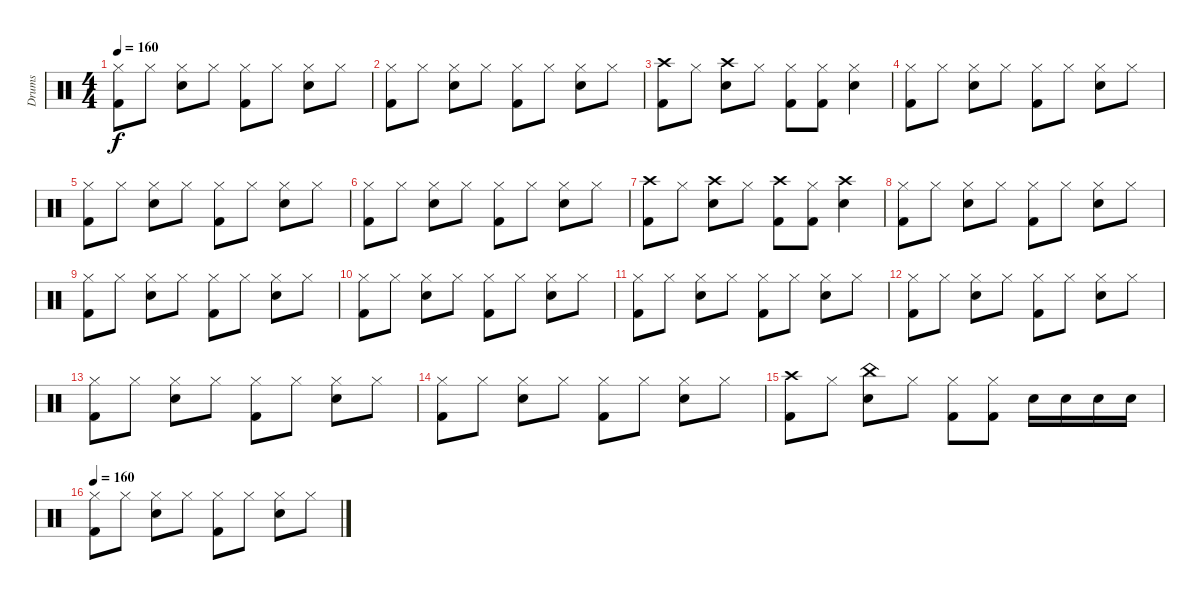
\track ("Drums" "Drums") {instrument percussion}
\staff {score}
\articulation defaults
\ts (4 4)
\tempo 160
\clef neutral
\ks c
("Hi-Hat (closed)" "Kick (hit) 2").8{dy f} "Hi-Hat (closed)".8 ("Hi-Hat (closed)" "Electric Snare (hit)").8 "Hi-Hat (closed)".8 ("Hi-Hat (closed)" "Kick (hit) 2").8 "Hi-Hat (closed)".8 ("Hi-Hat (closed)" "Electric Snare (hit)").8 "Hi-Hat (closed)".8 |
("Hi-Hat (closed)" "Kick (hit) 2").8 "Hi-Hat (closed)".8 ("Hi-Hat (closed)" "Electric Snare (hit)").8 "Hi-Hat (closed)".8 ("Hi-Hat (closed)" "Kick (hit) 2").8 "Hi-Hat (closed)".8 ("Hi-Hat (closed)" "Electric Snare (hit)").8 "Hi-Hat (closed)".8 |
("Crash high (hit)" "Kick (hit) 2").8 "Hi-Hat (closed)".8 ("Crash high (hit)" "Electric Snare (hit)").8 "Hi-Hat (closed)".8 ("Hi-Hat (closed)" "Kick (hit) 2").8 ("Hi-Hat (closed)" "Kick (hit) 2").8 ("Hi-Hat (closed)" "Electric Snare (hit)").4 |
("Hi-Hat (closed)" "Kick (hit) 2").8 "Hi-Hat (closed)".8 ("Hi-Hat (closed)" "Electric Snare (hit)").8 "Hi-Hat (closed)".8 ("Hi-Hat (closed)" "Kick (hit) 2").8 "Hi-Hat (closed)".8 ("Hi-Hat (closed)" "Electric Snare (hit)").8 "Hi-Hat (closed)".8 |
("Hi-Hat (closed)" "Kick (hit) 2").8 "Hi-Hat (closed)".8 ("Hi-Hat (closed)" "Electric Snare (hit)").8 "Hi-Hat (closed)".8 ("Hi-Hat (closed)" "Kick (hit) 2").8 "Hi-Hat (closed)".8 ("Hi-Hat (closed)" "Electric Snare (hit)").8 "Hi-Hat (closed)".8 |
("Hi-Hat (closed)" "Kick (hit) 2").8 "Hi-Hat (closed)".8 ("Hi-Hat (closed)" "Electric Snare (hit)").8 "Hi-Hat (closed)".8 ("Hi-Hat (closed)" "Kick (hit) 2").8 "Hi-Hat (closed)".8 ("Hi-Hat (closed)" "Electric Snare (hit)").8 "Hi-Hat (closed)".8 |
("Crash high (hit)" "Kick (hit) 2").8 "Hi-Hat (closed)".8 ("Crash high (hit)" "Electric Snare (hit)").8 "Hi-Hat (closed)".8 ("Crash high (hit)" "Kick (hit) 2").8 ("Hi-Hat (closed)" "Kick (hit) 2").8 ("Crash high (hit)" "Electric Snare (hit)").4 |
("Hi-Hat (closed)" "Kick (hit) 2").8 "Hi-Hat (closed)".8 ("Hi-Hat (closed)" "Electric Snare (hit)").8 "Hi-Hat (closed)".8 ("Hi-Hat (closed)" "Kick (hit) 2").8 "Hi-Hat (closed)".8 ("Hi-Hat (closed)" "Electric Snare (hit)").8 "Hi-Hat (closed)".8 |
("Hi-Hat (closed)" "Kick (hit) 2").8 "Hi-Hat (closed)".8 ("Hi-Hat (closed)" "Electric Snare (hit)").8 "Hi-Hat (closed)".8 ("Hi-Hat (closed)" "Kick (hit) 2").8 "Hi-Hat (closed)".8 ("Hi-Hat (closed)" "Electric Snare (hit)").8 "Hi-Hat (closed)".8 |
("Hi-Hat (closed)" "Kick (hit) 2").8 "Hi-Hat (closed)".8 ("Hi-Hat (closed)" "Electric Snare (hit)").8 "Hi-Hat (closed)".8 ("Hi-Hat (closed)" "Kick (hit) 2").8 "Hi-Hat (closed)".8 ("Hi-Hat (closed)" "Electric Snare (hit)").8 "Hi-Hat (closed)".8 |
("Hi-Hat (closed)" "Kick (hit) 2").8 "Hi-Hat (closed)".8 ("Hi-Hat (closed)" "Electric Snare (hit)").8 "Hi-Hat (closed)".8 ("Hi-Hat (closed)" "Kick (hit) 2").8 "Hi-Hat (closed)".8 ("Hi-Hat (closed)" "Electric Snare (hit)").8 "Hi-Hat (closed)".8 |
("Hi-Hat (closed)" "Kick (hit) 2").8 "Hi-Hat (closed)".8 ("Hi-Hat (closed)" "Electric Snare (hit)").8 "Hi-Hat (closed)".8 ("Hi-Hat (closed)" "Kick (hit) 2").8 "Hi-Hat (closed)".8 ("Hi-Hat (closed)" "Electric Snare (hit)").8 "Hi-Hat (closed)".8 |
("Hi-Hat (closed)" "Kick (hit) 2").8 "Hi-Hat (closed)".8 ("Hi-Hat (closed)" "Electric Snare (hit)").8 "Hi-Hat (closed)".8 ("Hi-Hat (closed)" "Kick (hit) 2").8 "Hi-Hat (closed)".8 ("Hi-Hat (closed)" "Electric Snare (hit)").8 "Hi-Hat (closed)".8 |
("Hi-Hat (closed)" "Kick (hit) 2").8 "Hi-Hat (closed)".8 ("Hi-Hat (closed)" "Electric Snare (hit)").8 "Hi-Hat (closed)".8 ("Hi-Hat (closed)" "Kick (hit) 2").8 "Hi-Hat (closed)".8 ("Hi-Hat (closed)" "Electric Snare (hit)").8 "Hi-Hat (closed)".8 |
("Crash high (hit)" "Kick (hit) 2").8 "Hi-Hat (closed)".8 ("China (hit)" "Electric Snare (hit)").8 "Hi-Hat (closed)".8 ("Hi-Hat (closed)" "Kick (hit) 2").8 ("Hi-Hat (closed)" "Kick (hit) 2").8 "Electric Snare (hit)".16 "Electric Snare (hit)".16 "Electric Snare (hit)".16 "Electric Snare (hit)".16 |
\tempo 160
("Hi-Hat (closed)" "Kick (hit) 2").8 "Hi-Hat (closed)".8 ("Hi-Hat (closed)" "Electric Snare (hit)").8 "Hi-Hat (closed)".8 ("Hi-Hat (closed)" "Kick (hit) 2").8 "Hi-Hat (closed)".8 ("Hi-Hat (closed)" "Electric Snare (hit)").8 "Hi-Hat (closed)".8
